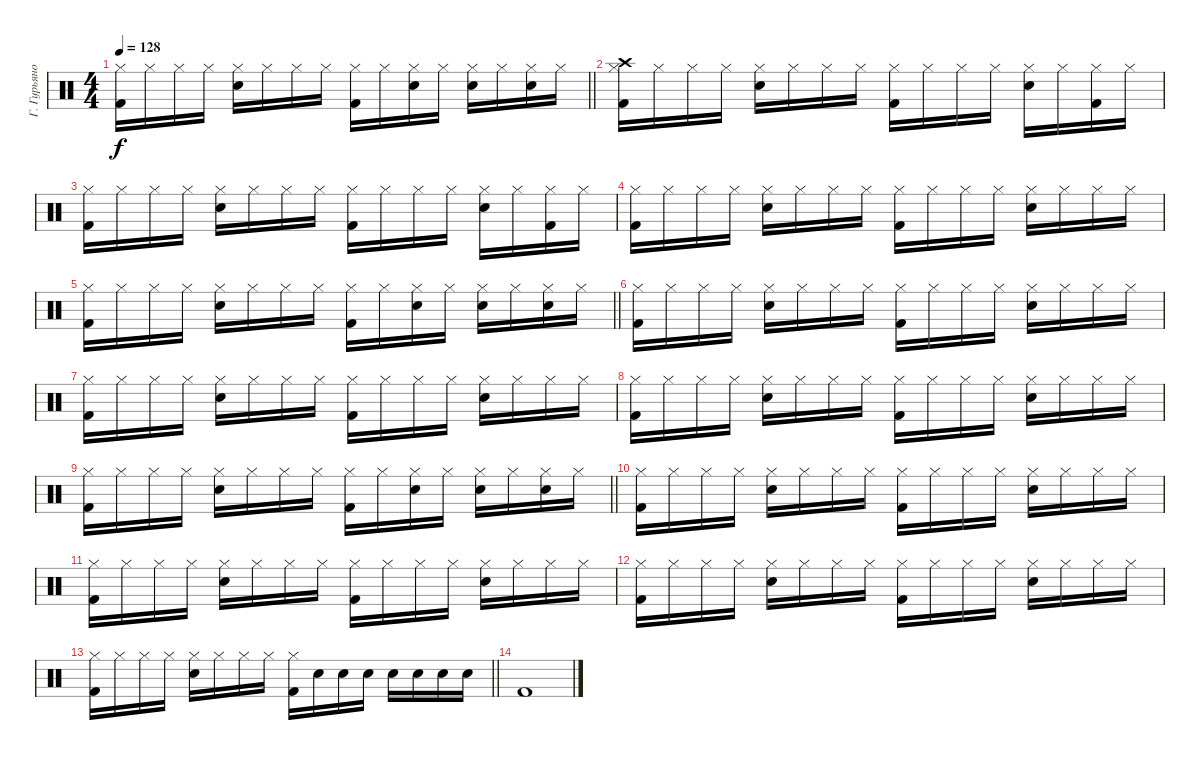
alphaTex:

\track ("Г. Гурьянов" "Г. Гурьяно") {instrument percussion}
\staff
\articulation defaults
\ts (4 4)
\tempo 128
\clef neutral
\barLineRight lightlight
\ks c
("Hi-Hat (closed)" "Kick (hit) 2").16{dy f} "Hi-Hat (closed)".16 "Hi-Hat (closed)".16 "Hi-Hat (closed)".16 ("Hi-Hat (closed)" "Snare (hit) 2").16 "Hi-Hat (closed)".16 "Hi-Hat (closed)".16 "Hi-Hat (closed)".16 ("Hi-Hat (closed)" "Kick (hit) 2").16 "Hi-Hat (closed)".16 ("Hi-Hat (closed)" "Snare (hit) 2").16 "Hi-Hat (closed)".16 ("Hi-Hat (closed)" "Snare (hit) 2").16 "Hi-Hat (closed)".16 ("Hi-Hat (closed)" "Snare (hit) 2").16 "Hi-Hat (closed)".16 |
("Hi-Hat (closed)" "Crash high (hit)" "Kick (hit) 2").16 "Hi-Hat (closed)".16 "Hi-Hat (closed)".16 "Hi-Hat (closed)".16 ("Hi-Hat (closed)" "Snare (hit) 2").16 "Hi-Hat (closed)".16 "Hi-Hat (closed)".16 "Hi-Hat (closed)".16 ("Hi-Hat (closed)" "Kick (hit) 2").16 "Hi-Hat (closed)".16 "Hi-Hat (closed)".16 "Hi-Hat (closed)".16 ("Hi-Hat (closed)" "Snare (hit) 2").16 "Hi-Hat (closed)".16 ("Hi-Hat (closed)" "Kick (hit) 2").16 "Hi-Hat (closed)".16 |
("Hi-Hat (closed)" "Kick (hit) 2").16 "Hi-Hat (closed)".16 "Hi-Hat (closed)".16 "Hi-Hat (closed)".16 ("Hi-Hat (closed)" "Snare (hit) 2").16 "Hi-Hat (closed)".16 "Hi-Hat (closed)".16 "Hi-Hat (closed)".16 ("Hi-Hat (closed)" "Kick (hit) 2").16 "Hi-Hat (closed)".16 "Hi-Hat (closed)".16 "Hi-Hat (closed)".16 ("Hi-Hat (closed)" "Snare (hit) 2").16 "Hi-Hat (closed)".16 ("Hi-Hat (closed)" "Kick (hit) 2").16 "Hi-Hat (closed)".16 |
("Hi-Hat (closed)" "Kick (hit) 2").16 "Hi-Hat (closed)".16 "Hi-Hat (closed)".16 "Hi-Hat (closed)".16 ("Hi-Hat (closed)" "Snare (hit) 2").16 "Hi-Hat (closed)".16 "Hi-Hat (closed)".16 "Hi-Hat (closed)".16 ("Hi-Hat (closed)" "Kick (hit) 2").16 "Hi-Hat (closed)".16 "Hi-Hat (closed)".16 "Hi-Hat (closed)".16 ("Hi-Hat (closed)" "Snare (hit) 2").16 "Hi-Hat (closed)".16 "Hi-Hat (closed)".16 "Hi-Hat (closed)".16 |
\barLineRight lightlight
("Hi-Hat (closed)" "Kick (hit) 2").16 "Hi-Hat (closed)".16 "Hi-Hat (closed)".16 "Hi-Hat (closed)".16 ("Hi-Hat (closed)" "Snare (hit) 2").16 "Hi-Hat (closed)".16 "Hi-Hat (closed)".16 "Hi-Hat (closed)".16 ("Hi-Hat (closed)" "Kick (hit) 2").16 "Hi-Hat (closed)".16 ("Hi-Hat (closed)" "Snare (hit) 2").16 "Hi-Hat (closed)".16 ("Hi-Hat (closed)" "Snare (hit) 2").16 "Hi-Hat (closed)".16 ("Hi-Hat (closed)" "Snare (hit) 2").16 "Hi-Hat (closed)".16 |
("Hi-Hat (closed)" "Kick (hit) 2").16 "Hi-Hat (closed)".16 "Hi-Hat (closed)".16 "Hi-Hat (closed)".16 ("Hi-Hat (closed)" "Snare (hit) 2").16 "Hi-Hat (closed)".16 "Hi-Hat (closed)".16 "Hi-Hat (closed)".16 ("Hi-Hat (closed)" "Kick (hit) 2").16 "Hi-Hat (closed)".16 "Hi-Hat (closed)".16 "Hi-Hat (closed)".16 ("Hi-Hat (closed)" "Snare (hit) 2").16 "Hi-Hat (closed)".16 "Hi-Hat (closed)".16 "Hi-Hat (closed)".16 |
("Hi-Hat (closed)" "Kick (hit) 2").16 "Hi-Hat (closed)".16 "Hi-Hat (closed)".16 "Hi-Hat (closed)".16 ("Hi-Hat (closed)" "Snare (hit) 2").16 "Hi-Hat (closed)".16 "Hi-Hat (closed)".16 "Hi-Hat (closed)".16 ("Hi-Hat (closed)" "Kick (hit) 2").16 "Hi-Hat (closed)".16 "Hi-Hat (closed)".16 "Hi-Hat (closed)".16 ("Hi-Hat (closed)" "Snare (hit) 2").16 "Hi-Hat (closed)".16 "Hi-Hat (closed)".16 "Hi-Hat (closed)".16 |
("Hi-Hat (closed)" "Kick (hit) 2").16 "Hi-Hat (closed)".16 "Hi-Hat (closed)".16 "Hi-Hat (closed)".16 ("Hi-Hat (closed)" "Snare (hit) 2").16 "Hi-Hat (closed)".16 "Hi-Hat (closed)".16 "Hi-Hat (closed)".16 ("Hi-Hat (closed)" "Kick (hit) 2").16 "Hi-Hat (closed)".16 "Hi-Hat (closed)".16 "Hi-Hat (closed)".16 ("Hi-Hat (closed)" "Snare (hit) 2").16 "Hi-Hat (closed)".16 "Hi-Hat (closed)".16 "Hi-Hat (closed)".16 |
\barLineRight lightlight
("Hi-Hat (closed)" "Kick (hit) 2").16 "Hi-Hat (closed)".16 "Hi-Hat (closed)".16 "Hi-Hat (closed)".16 ("Hi-Hat (closed)" "Snare (hit) 2").16 "Hi-Hat (closed)".16 "Hi-Hat (closed)".16 "Hi-Hat (closed)".16 ("Hi-Hat (closed)" "Kick (hit) 2").16 "Hi-Hat (closed)".16 ("Hi-Hat (closed)" "Snare (hit) 2").16 "Hi-Hat (closed)".16 ("Hi-Hat (closed)" "Snare (hit) 2").16 "Hi-Hat (closed)".16 ("Hi-Hat (closed)" "Snare (hit) 2").16 "Hi-Hat (closed)".16 |
("Hi-Hat (closed)" "Kick (hit) 2").16 "Hi-Hat (closed)".16 "Hi-Hat (closed)".16 "Hi-Hat (closed)".16 ("Hi-Hat (closed)" "Snare (hit) 2").16 "Hi-Hat (closed)".16 "Hi-Hat (closed)".16 "Hi-Hat (closed)".16 ("Hi-Hat (closed)" "Kick (hit) 2").16 "Hi-Hat (closed)".16 "Hi-Hat (closed)".16 "Hi-Hat (closed)".16 ("Hi-Hat (closed)" "Snare (hit) 2").16 "Hi-Hat (closed)".16 "Hi-Hat (closed)".16 "Hi-Hat (closed)".16 |
("Hi-Hat (closed)" "Kick (hit) 2").16 "Hi-Hat (closed)".16 "Hi-Hat (closed)".16 "Hi-Hat (closed)".16 ("Hi-Hat (closed)" "Snare (hit) 2").16 "Hi-Hat (closed)".16 "Hi-Hat (closed)".16 "Hi-Hat (closed)".16 ("Hi-Hat (closed)" "Kick (hit) 2").16 "Hi-Hat (closed)".16 "Hi-Hat (closed)".16 "Hi-Hat (closed)".16 ("Hi-Hat (closed)" "Snare (hit) 2").16 "Hi-Hat (closed)".16 "Hi-Hat (closed)".16 "Hi-Hat (closed)".16 |
("Hi-Hat (closed)" "Kick (hit) 2").16 "Hi-Hat (closed)".16 "Hi-Hat (closed)".16 "Hi-Hat (closed)".16 ("Hi-Hat (closed)" "Snare (hit) 2").16 "Hi-Hat (closed)".16 "Hi-Hat (closed)".16 "Hi-Hat (closed)".16 ("Hi-Hat (closed)" "Kick (hit) 2").16 "Hi-Hat (closed)".16 "Hi-Hat (closed)".16 "Hi-Hat (closed)".16 ("Hi-Hat (closed)" "Snare (hit) 2").16 "Hi-Hat (closed)".16 "Hi-Hat (closed)".16 "Hi-Hat (closed)".16 |
\barLineRight lightlight
("Hi-Hat (closed)" "Kick (hit) 2").16 "Hi-Hat (closed)".16 "Hi-Hat (closed)".16 "Hi-Hat (closed)".16 ("Hi-Hat (closed)" "Snare (hit) 2").16 "Hi-Hat (closed)".16 "Hi-Hat (closed)".16 "Hi-Hat (closed)".16 ("Hi-Hat (closed)" "Kick (hit) 2").16 "Snare (hit) 2".16 "Snare (hit) 2".16 "Snare (hit) 2".16 "Snare (hit) 2".16 "Snare (hit) 2".16 "Snare (hit) 2".16 "Snare (hit) 2".16 |
"Kick (hit) 2".1
